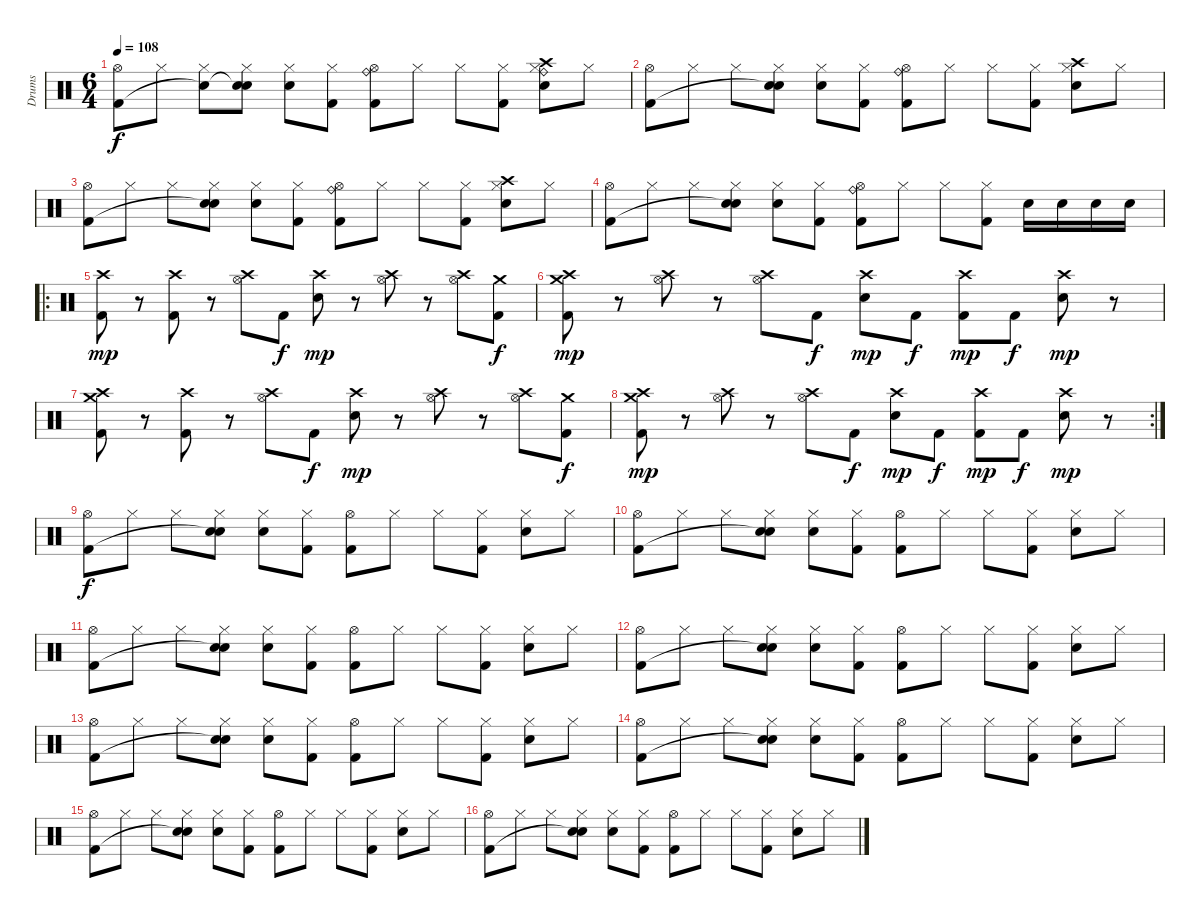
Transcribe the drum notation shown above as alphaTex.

\track ("Drums" "Drums") {instrument percussion}
\staff {score}
\articulation defaults
\ts (6 4)
\tempo 108
\clef neutral
\ks c
("Hi-Hat (open)" "Kick (hit) 2").8{dy f} "Hi-Hat (closed)".8 ("Hi-Hat (closed)" "Snare (hit)"{t}).8 ("Hi-Hat (closed)" "Snare (hit)"{t} "Snare (hit) 2").8 ("Hi-Hat (closed)" "Snare (hit) 2").8 ("Hi-Hat (closed)" "Kick (hit) 2").8 ("Ride (bell)" "Hi-Hat (open)" "Kick (hit) 2").8 "Hi-Hat (closed)".8 "Hi-Hat (closed)".8 ("Hi-Hat (closed)" "Kick (hit) 2").8 ("Hi-Hat (closed)" "Crash high (hit)" "Ride (bell)" "Snare (hit) 2").8 "Hi-Hat (closed)".8 |
("Hi-Hat (open)" "Kick (hit) 2").8 "Hi-Hat (closed)".8 "Hi-Hat (closed)".8 ("Hi-Hat (closed)" "Snare (hit)"{t} "Snare (hit) 2").8 ("Hi-Hat (closed)" "Snare (hit) 2").8 ("Hi-Hat (closed)" "Kick (hit) 2").8 ("Ride (bell)" "Hi-Hat (open)" "Kick (hit) 2").8 "Hi-Hat (closed)".8 "Hi-Hat (closed)".8 ("Hi-Hat (closed)" "Kick (hit) 2").8 ("Hi-Hat (closed)" "Crash high (hit)" "Snare (hit) 2").8 "Hi-Hat (closed)".8 |
("Hi-Hat (open)" "Kick (hit) 2").8 "Hi-Hat (closed)".8 "Hi-Hat (closed)".8 ("Hi-Hat (closed)" "Snare (hit)"{t} "Snare (hit) 2").8 ("Hi-Hat (closed)" "Snare (hit) 2").8 ("Hi-Hat (closed)" "Kick (hit) 2").8 ("Ride (bell)" "Hi-Hat (open)" "Kick (hit) 2").8 "Hi-Hat (closed)".8 "Hi-Hat (closed)".8 ("Hi-Hat (closed)" "Kick (hit) 2").8 ("Hi-Hat (closed)" "Crash high (hit)" "Snare (hit) 2").8 "Hi-Hat (closed)".8 |
("Hi-Hat (open)" "Kick (hit) 2").8 "Hi-Hat (closed)".8 "Hi-Hat (closed)".8 ("Hi-Hat (closed)" "Snare (hit)"{t} "Snare (hit) 2").8 ("Hi-Hat (closed)" "Snare (hit) 2").8 ("Hi-Hat (closed)" "Kick (hit) 2").8 ("Ride (bell)" "Hi-Hat (open)" "Kick (hit) 2").8 "Hi-Hat (closed)".8 "Hi-Hat (closed)".8 ("Hi-Hat (closed)" "Kick (hit) 2").8 "Snare (hit) 2".16 "Snare (hit) 2".16 "Snare (hit) 2".16 "Snare (hit) 2".16 |
\ro
("Crash high (hit)" "Kick (hit) 2").8{dy mp} r.8 ("Crash high (hit)" "Kick (hit) 2").8 r.8 ("Crash high (hit)" "Hi-Hat (open)").8 "Kick (hit) 2".8{dy f} ("Crash high (hit)" "Snare (hit) 2").8{dy mp} r.8 ("Crash high (hit)" "Hi-Hat (open)").8 r.8 ("Crash high (hit)" "Hi-Hat (open)").8 ("Crash medium (hit)" "Kick (hit) 2").8{dy f} |
("Crash high (hit)" "Crash medium (hit)" "Kick (hit) 2").8{dy mp} r.8 ("Crash high (hit)" "Hi-Hat (open)").8 r.8 ("Crash high (hit)" "Hi-Hat (open)").8 "Kick (hit) 2".8{dy f} ("Crash high (hit)" "Snare (hit) 2").8{dy mp} "Kick (hit) 2".8{dy f} ("Crash high (hit)" "Kick (hit) 2").8{dy mp} "Kick (hit) 2".8{dy f} ("Crash high (hit)" "Snare (hit) 2").8{dy mp} r.8 |
("Crash high (hit)" "Crash medium (hit)" "Kick (hit) 2").8 r.8 ("Crash high (hit)" "Kick (hit) 2").8 r.8 ("Crash high (hit)" "Hi-Hat (open)").8 "Kick (hit) 2".8{dy f} ("Crash high (hit)" "Snare (hit) 2").8{dy mp} r.8 ("Crash high (hit)" "Hi-Hat (open)").8 r.8 ("Crash high (hit)" "Hi-Hat (open)").8 ("Crash medium (hit)" "Kick (hit) 2").8{dy f} |
\rc 2
("Crash high (hit)" "Crash medium (hit)" "Kick (hit) 2").8{dy mp} r.8 ("Crash high (hit)" "Hi-Hat (open)").8 r.8 ("Crash high (hit)" "Hi-Hat (open)").8 "Kick (hit) 2".8{dy f} ("Crash high (hit)" "Snare (hit) 2").8{dy mp} "Kick (hit) 2".8{dy f} ("Crash high (hit)" "Kick (hit) 2").8{dy mp} "Kick (hit) 2".8{dy f} ("Crash high (hit)" "Snare (hit) 2").8{dy mp} r.8 |
("Hi-Hat (open)" "Kick (hit) 2").8{dy f} "Hi-Hat (closed)".8 "Hi-Hat (closed)".8 ("Hi-Hat (closed)" "Snare (hit)"{t} "Snare (hit) 2").8 ("Hi-Hat (closed)" "Snare (hit) 2").8 ("Hi-Hat (closed)" "Kick (hit) 2").8 ("Hi-Hat (open)" "Kick (hit) 2").8 "Hi-Hat (closed)".8 "Hi-Hat (closed)".8 ("Hi-Hat (closed)" "Kick (hit) 2").8 ("Hi-Hat (closed)" "Snare (hit) 2").8 "Hi-Hat (closed)".8 |
("Hi-Hat (open)" "Kick (hit) 2").8 "Hi-Hat (closed)".8 "Hi-Hat (closed)".8 ("Hi-Hat (closed)" "Snare (hit)"{t} "Snare (hit) 2").8 ("Hi-Hat (closed)" "Snare (hit) 2").8 ("Hi-Hat (closed)" "Kick (hit) 2").8 ("Hi-Hat (open)" "Kick (hit) 2").8 "Hi-Hat (closed)".8 "Hi-Hat (closed)".8 ("Hi-Hat (closed)" "Kick (hit) 2").8 ("Hi-Hat (closed)" "Snare (hit) 2").8 "Hi-Hat (closed)".8 |
("Hi-Hat (open)" "Kick (hit) 2").8 "Hi-Hat (closed)".8 "Hi-Hat (closed)".8 ("Hi-Hat (closed)" "Snare (hit)"{t} "Snare (hit) 2").8 ("Hi-Hat (closed)" "Snare (hit) 2").8 ("Hi-Hat (closed)" "Kick (hit) 2").8 ("Hi-Hat (open)" "Kick (hit) 2").8 "Hi-Hat (closed)".8 "Hi-Hat (closed)".8 ("Hi-Hat (closed)" "Kick (hit) 2").8 ("Hi-Hat (closed)" "Snare (hit) 2").8 "Hi-Hat (closed)".8 |
("Hi-Hat (open)" "Kick (hit) 2").8 "Hi-Hat (closed)".8 "Hi-Hat (closed)".8 ("Hi-Hat (closed)" "Snare (hit)"{t} "Snare (hit) 2").8 ("Hi-Hat (closed)" "Snare (hit) 2").8 ("Hi-Hat (closed)" "Kick (hit) 2").8 ("Hi-Hat (open)" "Kick (hit) 2").8 "Hi-Hat (closed)".8 "Hi-Hat (closed)".8 ("Hi-Hat (closed)" "Kick (hit) 2").8 ("Hi-Hat (closed)" "Snare (hit) 2").8 "Hi-Hat (closed)".8 |
("Hi-Hat (open)" "Kick (hit) 2").8 "Hi-Hat (closed)".8 "Hi-Hat (closed)".8 ("Hi-Hat (closed)" "Snare (hit)"{t} "Snare (hit) 2").8 ("Hi-Hat (closed)" "Snare (hit) 2").8 ("Hi-Hat (closed)" "Kick (hit) 2").8 ("Hi-Hat (open)" "Kick (hit) 2").8 "Hi-Hat (closed)".8 "Hi-Hat (closed)".8 ("Hi-Hat (closed)" "Kick (hit) 2").8 ("Hi-Hat (closed)" "Snare (hit) 2").8 "Hi-Hat (closed)".8 |
("Hi-Hat (open)" "Kick (hit) 2").8 "Hi-Hat (closed)".8 "Hi-Hat (closed)".8 ("Hi-Hat (closed)" "Snare (hit)"{t} "Snare (hit) 2").8 ("Hi-Hat (closed)" "Snare (hit) 2").8 ("Hi-Hat (closed)" "Kick (hit) 2").8 ("Hi-Hat (open)" "Kick (hit) 2").8 "Hi-Hat (closed)".8 "Hi-Hat (closed)".8 ("Hi-Hat (closed)" "Kick (hit) 2").8 ("Hi-Hat (closed)" "Snare (hit) 2").8 "Hi-Hat (closed)".8 |
("Hi-Hat (open)" "Kick (hit) 2").8 "Hi-Hat (closed)".8 "Hi-Hat (closed)".8 ("Hi-Hat (closed)" "Snare (hit)"{t} "Snare (hit) 2").8 ("Hi-Hat (closed)" "Snare (hit) 2").8 ("Hi-Hat (closed)" "Kick (hit) 2").8 ("Hi-Hat (open)" "Kick (hit) 2").8 "Hi-Hat (closed)".8 "Hi-Hat (closed)".8 ("Hi-Hat (closed)" "Kick (hit) 2").8 ("Hi-Hat (closed)" "Snare (hit) 2").8 "Hi-Hat (closed)".8 |
("Hi-Hat (open)" "Kick (hit) 2").8 "Hi-Hat (closed)".8 "Hi-Hat (closed)".8 ("Hi-Hat (closed)" "Snare (hit)"{t} "Snare (hit) 2").8 ("Hi-Hat (closed)" "Snare (hit) 2").8 ("Hi-Hat (closed)" "Kick (hit) 2").8 ("Hi-Hat (open)" "Kick (hit) 2").8 "Hi-Hat (closed)".8 "Hi-Hat (closed)".8 ("Hi-Hat (closed)" "Kick (hit) 2").8 ("Hi-Hat (closed)" "Snare (hit) 2").8 "Hi-Hat (closed)".8
